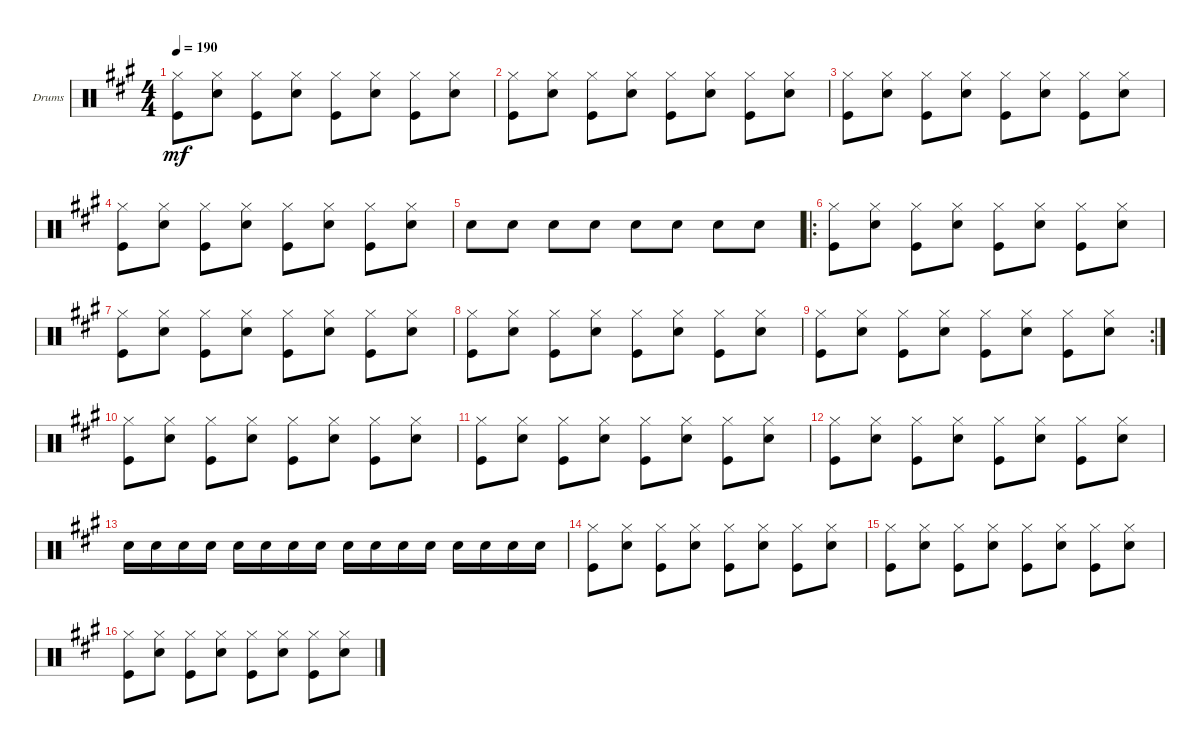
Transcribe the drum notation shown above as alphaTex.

\defaultSystemsLayout 4
\bracketExtendMode groupsimilarinstruments
\firstSystemTrackNameOrientation horizontal
\otherSystemsTrackNameOrientation horizontal
\track ("Drumkit" "Drums") {instrument percussion}
\staff {score}
\articulation defaults
\ts (4 4)
\tempo 190
\clef neutral
\ks f#minor
("Kick (hit)" "Hi-Hat (closed)").8{dy mf} ("Snare (hit) 2" "Hi-Hat (closed)").8 ("Kick (hit)" "Hi-Hat (closed)").8 ("Snare (hit) 2" "Hi-Hat (closed)").8 ("Kick (hit)" "Hi-Hat (closed)").8 ("Snare (hit) 2" "Hi-Hat (closed)").8 ("Kick (hit)" "Hi-Hat (closed)").8 ("Snare (hit) 2" "Hi-Hat (closed)").8 |
("Kick (hit)" "Hi-Hat (closed)").8 ("Snare (hit) 2" "Hi-Hat (closed)").8 ("Kick (hit)" "Hi-Hat (closed)").8 ("Snare (hit) 2" "Hi-Hat (closed)").8 ("Kick (hit)" "Hi-Hat (closed)").8 ("Snare (hit) 2" "Hi-Hat (closed)").8 ("Kick (hit)" "Hi-Hat (closed)").8 ("Snare (hit) 2" "Hi-Hat (closed)").8 |
("Kick (hit)" "Hi-Hat (closed)").8 ("Snare (hit) 2" "Hi-Hat (closed)").8 ("Kick (hit)" "Hi-Hat (closed)").8 ("Snare (hit) 2" "Hi-Hat (closed)").8 ("Kick (hit)" "Hi-Hat (closed)").8 ("Snare (hit) 2" "Hi-Hat (closed)").8 ("Kick (hit)" "Hi-Hat (closed)").8 ("Snare (hit) 2" "Hi-Hat (closed)").8 |
("Kick (hit)" "Hi-Hat (closed)").8 ("Snare (hit) 2" "Hi-Hat (closed)").8 ("Kick (hit)" "Hi-Hat (closed)").8 ("Snare (hit) 2" "Hi-Hat (closed)").8 ("Kick (hit)" "Hi-Hat (closed)").8 ("Snare (hit) 2" "Hi-Hat (closed)").8 ("Kick (hit)" "Hi-Hat (closed)").8 ("Snare (hit) 2" "Hi-Hat (closed)").8 |
"Snare (hit) 2".8 "Snare (hit) 2".8 "Snare (hit) 2".8 "Snare (hit) 2".8 "Snare (hit) 2".8 "Snare (hit) 2".8 "Snare (hit) 2".8 "Snare (hit) 2".8 |
\ro
("Kick (hit)" "Hi-Hat (closed)").8 ("Snare (hit) 2" "Hi-Hat (closed)").8 ("Kick (hit)" "Hi-Hat (closed)").8 ("Snare (hit) 2" "Hi-Hat (closed)").8 ("Kick (hit)" "Hi-Hat (closed)").8 ("Snare (hit) 2" "Hi-Hat (closed)").8 ("Kick (hit)" "Hi-Hat (closed)").8 ("Snare (hit) 2" "Hi-Hat (closed)").8 |
("Kick (hit)" "Hi-Hat (closed)").8 ("Snare (hit) 2" "Hi-Hat (closed)").8 ("Kick (hit)" "Hi-Hat (closed)").8 ("Snare (hit) 2" "Hi-Hat (closed)").8 ("Kick (hit)" "Hi-Hat (closed)").8 ("Snare (hit) 2" "Hi-Hat (closed)").8 ("Kick (hit)" "Hi-Hat (closed)").8 ("Snare (hit) 2" "Hi-Hat (closed)").8 |
("Kick (hit)" "Hi-Hat (closed)").8 ("Snare (hit) 2" "Hi-Hat (closed)").8 ("Kick (hit)" "Hi-Hat (closed)").8 ("Snare (hit) 2" "Hi-Hat (closed)").8 ("Kick (hit)" "Hi-Hat (closed)").8 ("Snare (hit) 2" "Hi-Hat (closed)").8 ("Kick (hit)" "Hi-Hat (closed)").8 ("Snare (hit) 2" "Hi-Hat (closed)").8 |
\rc 2
("Kick (hit)" "Hi-Hat (closed)").8 ("Snare (hit) 2" "Hi-Hat (closed)").8 ("Kick (hit)" "Hi-Hat (closed)").8 ("Snare (hit) 2" "Hi-Hat (closed)").8 ("Kick (hit)" "Hi-Hat (closed)").8 ("Snare (hit) 2" "Hi-Hat (closed)").8 ("Kick (hit)" "Hi-Hat (closed)").8 ("Snare (hit) 2" "Hi-Hat (closed)").8 |
("Kick (hit)" "Hi-Hat (closed)").8 ("Snare (hit) 2" "Hi-Hat (closed)").8 ("Kick (hit)" "Hi-Hat (closed)").8 ("Snare (hit) 2" "Hi-Hat (closed)").8 ("Kick (hit)" "Hi-Hat (closed)").8 ("Snare (hit) 2" "Hi-Hat (closed)").8 ("Kick (hit)" "Hi-Hat (closed)").8 ("Snare (hit) 2" "Hi-Hat (closed)").8 |
("Kick (hit)" "Hi-Hat (closed)").8 ("Snare (hit) 2" "Hi-Hat (closed)").8 ("Kick (hit)" "Hi-Hat (closed)").8 ("Snare (hit) 2" "Hi-Hat (closed)").8 ("Kick (hit)" "Hi-Hat (closed)").8 ("Snare (hit) 2" "Hi-Hat (closed)").8 ("Kick (hit)" "Hi-Hat (closed)").8 ("Snare (hit) 2" "Hi-Hat (closed)").8 |
("Kick (hit)" "Hi-Hat (closed)").8 ("Snare (hit) 2" "Hi-Hat (closed)").8 ("Kick (hit)" "Hi-Hat (closed)").8 ("Snare (hit) 2" "Hi-Hat (closed)").8 ("Kick (hit)" "Hi-Hat (closed)").8 ("Snare (hit) 2" "Hi-Hat (closed)").8 ("Kick (hit)" "Hi-Hat (closed)").8 ("Snare (hit) 2" "Hi-Hat (closed)").8 |
"Snare (hit) 2".16 "Snare (hit) 2".16 "Snare (hit) 2".16 "Snare (hit) 2".16 "Snare (hit) 2".16 "Snare (hit) 2".16 "Snare (hit) 2".16 "Snare (hit) 2".16 "Snare (hit) 2".16 "Snare (hit) 2".16 "Snare (hit) 2".16 "Snare (hit) 2".16 "Snare (hit) 2".16 "Snare (hit) 2".16 "Snare (hit) 2".16 "Snare (hit) 2".16 |
("Kick (hit)" "Hi-Hat (closed)").8 ("Snare (hit) 2" "Hi-Hat (closed)").8 ("Kick (hit)" "Hi-Hat (closed)").8 ("Snare (hit) 2" "Hi-Hat (closed)").8 ("Kick (hit)" "Hi-Hat (closed)").8 ("Snare (hit) 2" "Hi-Hat (closed)").8 ("Kick (hit)" "Hi-Hat (closed)").8 ("Snare (hit) 2" "Hi-Hat (closed)").8 |
("Kick (hit)" "Hi-Hat (closed)").8 ("Snare (hit) 2" "Hi-Hat (closed)").8 ("Kick (hit)" "Hi-Hat (closed)").8 ("Snare (hit) 2" "Hi-Hat (closed)").8 ("Kick (hit)" "Hi-Hat (closed)").8 ("Snare (hit) 2" "Hi-Hat (closed)").8 ("Kick (hit)" "Hi-Hat (closed)").8 ("Snare (hit) 2" "Hi-Hat (closed)").8 |
("Kick (hit)" "Hi-Hat (closed)").8 ("Snare (hit) 2" "Hi-Hat (closed)").8 ("Kick (hit)" "Hi-Hat (closed)").8 ("Snare (hit) 2" "Hi-Hat (closed)").8 ("Kick (hit)" "Hi-Hat (closed)").8 ("Snare (hit) 2" "Hi-Hat (closed)").8 ("Kick (hit)" "Hi-Hat (closed)").8 ("Snare (hit) 2" "Hi-Hat (closed)").8
